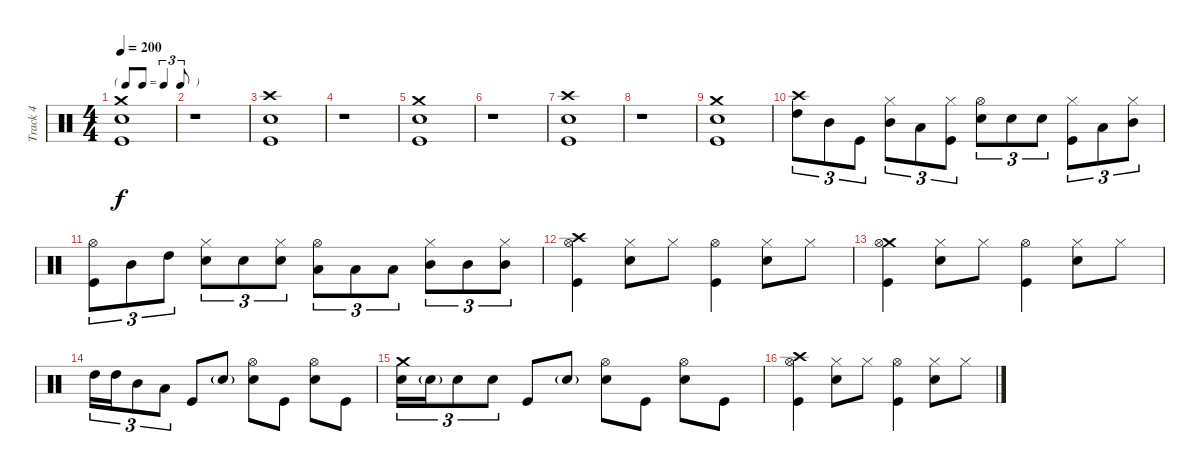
\track ("Track 4" "Track 4") {instrument percussion}
\staff {score}
\articulation defaults
\ts (4 4)
\tf triplet8th
\tempo 200
\clef neutral
\ks c
("Crash medium (hit)" "Electric Snare (hit)" "Kick (hit)").1{dy f} |
r.1 |
("Crash high (hit)" "Electric Snare (hit)" "Kick (hit)").1 |
r.1 |
("Crash medium (hit)" "Electric Snare (hit)" "Kick (hit)").1 |
r.1 |
("Crash high (hit)" "Electric Snare (hit)" "Kick (hit)").1 |
r.1 |
("Crash medium (hit)" "Electric Snare (hit)" "Kick (hit)").1 |
("Crash high (hit)" "High Tom (hit)").8{tu (3 2)} "Mid Tom (hit)".8{tu (3 2)} "Kick (hit)".8{tu (3 2)} ("Mid Tom (hit)" "Hi-Hat (closed)").8{tu (3 2)} "Low Tom (hit)".8{tu (3 2)} ("Hi-Hat (closed)" "Kick (hit)").8{tu (3 2)} ("Hi-Hat (open)" "Electric Snare (hit)").8{tu (3 2)} "Electric Snare (hit)".8{tu (3 2)} "Electric Snare (hit)".8{tu (3 2)} ("Hi-Hat (closed)" "Kick (hit)").8{tu (3 2)} "Low Tom (hit)".8{tu (3 2)} ("Mid Tom (hit)" "Hi-Hat (closed)").8{tu (3 2)} |
("Hi-Hat (open)" "Kick (hit)").8{tu (3 2)} "Mid Tom (hit)".8{tu (3 2)} "High Tom (hit)".8{tu (3 2)} ("Hi-Hat (closed)" "Electric Snare (hit)").8{tu (3 2)} "Electric Snare (hit)".8{tu (3 2)} ("Hi-Hat (closed)" "Electric Snare (hit)").8{tu (3 2)} ("Hi-Hat (open)" "Low Tom (hit)").8{tu (3 2)} "Low Tom (hit)".8{tu (3 2)} "Low Tom (hit)".8{tu (3 2)} ("Mid Tom (hit)" "Hi-Hat (closed)").8{tu (3 2)} "Mid Tom (hit)".8{tu (3 2)} ("Mid Tom (hit)" "Hi-Hat (closed)").8{tu (3 2)} |
("Crash high (hit)" "Hi-Hat (open)" "Kick (hit)").4 ("Hi-Hat (closed)" "Electric Snare (hit)").8 "Hi-Hat (closed)".8 ("Hi-Hat (open)" "Kick (hit)").4 ("Hi-Hat (closed)" "Electric Snare (hit)").8 "Hi-Hat (closed)".8 |
("Crash medium (hit)" "Hi-Hat (open)" "Kick (hit)").4 ("Hi-Hat (closed)" "Electric Snare (hit)").8 "Hi-Hat (closed)".8 ("Hi-Hat (open)" "Kick (hit)").4 ("Hi-Hat (closed)" "Electric Snare (hit)").8 "Hi-Hat (closed)".8 |
"High Tom (hit)".16{tu (3 2)} "High Tom (hit)".16{tu (3 2)} "Mid Tom (hit)".8{tu (3 2)} "Low Tom (hit)".8{tu (3 2)} "Kick (hit)".8 "Electric Snare (hit)"{g}.8 ("Hi-Hat (open)" "Electric Snare (hit)").8 "Kick (hit)".8 ("Hi-Hat (open)" "Electric Snare (hit)").8 "Kick (hit)".8 |
("Crash medium (hit)" "Electric Snare (hit)").16{tu (3 2)} "Electric Snare (hit)"{g}.16{tu (3 2)} "Electric Snare (hit)".8{tu (3 2)} "Electric Snare (hit)".8{tu (3 2)} "Kick (hit)".8 "Electric Snare (hit)"{g}.8 ("Hi-Hat (open)" "Electric Snare (hit)").8 "Kick (hit)".8 ("Hi-Hat (open)" "Electric Snare (hit)").8 "Kick (hit)".8 |
("Crash high (hit)" "Hi-Hat (open)" "Kick (hit)").4 ("Hi-Hat (closed)" "Electric Snare (hit)").8 "Hi-Hat (closed)".8 ("Hi-Hat (open)" "Kick (hit)").4 ("Hi-Hat (closed)" "Electric Snare (hit)").8 "Hi-Hat (closed)".8
